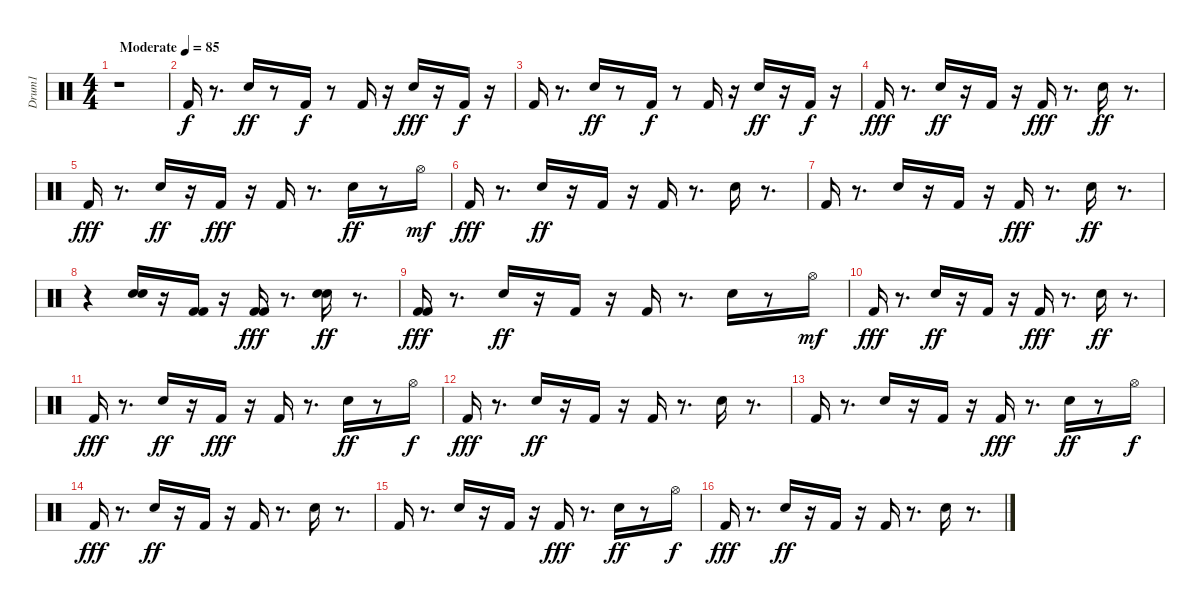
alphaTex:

\track ("Drum1" "Drum1") {instrument percussion}
\staff {score}
\articulation defaults
\ts (4 4)
\tempo (85 "Moderate")
\clef neutral
\ks c
r.1{dy f} |
"Kick (hit) 2".16 r.8{d} "Electric Snare (hit)".16{dy ff} r.8 "Kick (hit) 2".16{dy f} r.8 "Kick (hit) 2".16 r.16 "Electric Snare (hit)".16{dy fff} r.16 "Kick (hit) 2".16{dy f} r.16 |
"Kick (hit) 2".16 r.8{d} "Electric Snare (hit)".16{dy ff} r.8 "Kick (hit) 2".16{dy f} r.8 "Kick (hit) 2".16 r.16 "Electric Snare (hit)".16{dy ff} r.16 "Kick (hit) 2".16{dy f} r.16 |
"Kick (hit) 2".16{dy fff} r.8{d} "Hand Clap (hit)".16{dy ff} r.16 "Kick (hit) 2".16 r.16 "Kick (hit) 2".16{dy fff} r.8{d} "Hand Clap (hit)".16{dy ff} r.8{d} |
"Kick (hit) 2".16{dy fff} r.8{d} "Hand Clap (hit)".16{dy ff} r.16 "Kick (hit) 2".16{dy fff} r.16 "Kick (hit) 2".16 r.8{d} "Hand Clap (hit)".16{dy ff} r.8 "Hi-Hat (open)".16{dy mf} |
"Kick (hit) 2".16{dy fff} r.8{d} "Hand Clap (hit)".16{dy ff} r.16 "Kick (hit) 2".16 r.16 "Kick (hit) 2".16 r.8{d} "Hand Clap (hit)".16 r.8{d} |
"Kick (hit) 2".16 r.8{d} "Hand Clap (hit)".16 r.16 "Kick (hit) 2".16 r.16 "Kick (hit) 2".16{dy fff} r.8{d} "Hand Clap (hit)".16{dy ff} r.8{d} |
r.4 ("Hand Clap (hit)" "Hand Clap (hit)").16 r.16 ("Kick (hit) 2" "Kick (hit) 2").16 r.16 ("Kick (hit) 2" "Kick (hit) 2").16{dy fff} r.8{d} ("Hand Clap (hit)" "Hand Clap (hit)").16{dy ff} r.8{d} |
("Kick (hit) 2" "Kick (hit) 2").16{dy fff} r.8{d} "Hand Clap (hit)".16{dy ff} r.16 "Kick (hit) 2".16 r.16 "Kick (hit) 2".16 r.8{d} "Hand Clap (hit)".16 r.8 "Hi-Hat (open)".16{dy mf} |
"Kick (hit) 2".16{dy fff} r.8{d} "Hand Clap (hit)".16{dy ff} r.16 "Kick (hit) 2".16 r.16 "Kick (hit) 2".16{dy fff} r.8{d} "Hand Clap (hit)".16{dy ff} r.8{d} |
"Kick (hit) 2".16{dy fff} r.8{d} "Hand Clap (hit)".16{dy ff} r.16 "Kick (hit) 2".16{dy fff} r.16 "Kick (hit) 2".16 r.8{d} "Hand Clap (hit)".16{dy ff} r.8 "Hi-Hat (open)".16{dy f} |
"Kick (hit) 2".16{dy fff} r.8{d} "Hand Clap (hit)".16{dy ff} r.16 "Kick (hit) 2".16 r.16 "Kick (hit) 2".16 r.8{d} "Hand Clap (hit)".16 r.8{d} |
"Kick (hit) 2".16 r.8{d} "Hand Clap (hit)".16 r.16 "Kick (hit) 2".16 r.16 "Kick (hit) 2".16{dy fff} r.8{d} "Hand Clap (hit)".16{dy ff} r.8 "Hi-Hat (open)".16{dy f} |
"Kick (hit) 2".16{dy fff} r.8{d} "Hand Clap (hit)".16{dy ff} r.16 "Kick (hit) 2".16 r.16 "Kick (hit) 2".16 r.8{d} "Hand Clap (hit)".16 r.8{d} |
"Kick (hit) 2".16 r.8{d} "Hand Clap (hit)".16 r.16 "Kick (hit) 2".16 r.16 "Kick (hit) 2".16{dy fff} r.8{d} "Hand Clap (hit)".16{dy ff} r.8 "Hi-Hat (open)".16{dy f} |
"Kick (hit) 2".16{dy fff} r.8{d} "Hand Clap (hit)".16{dy ff} r.16 "Kick (hit) 2".16 r.16 "Kick (hit) 2".16 r.8{d} "Hand Clap (hit)".16 r.8{d}
